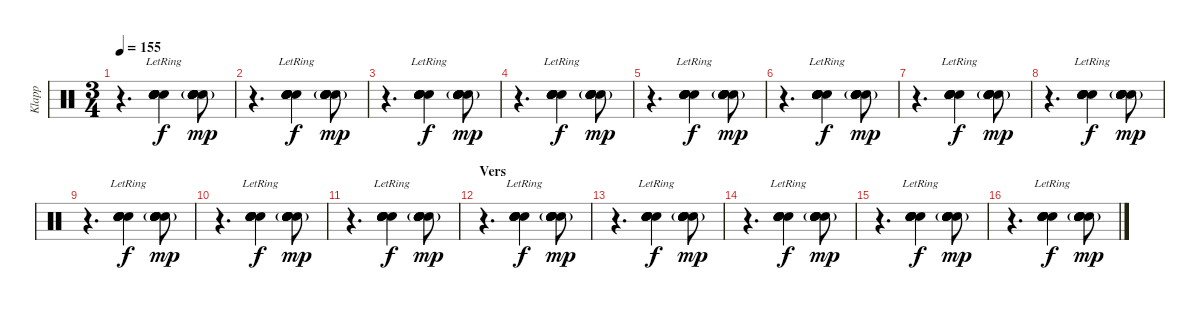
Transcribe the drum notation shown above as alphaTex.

\track ("Klapp" "Klapp") {instrument percussion}
\staff {score}
\articulation defaults
\ts (3 4)
\tempo 155
\clef neutral
\ks c
r.4{d dy mp} ("Hand Clap (hit)"{lr} "Hand Clap (hit)"{lr} "Hand Clap (hit)"{lr} "Hand Clap (hit)"{lr} "Hand Clap (hit)"{lr} "Hand Clap (hit)"{lr}).4{dy f} ("Hand Clap (hit)"{g} "Hand Clap (hit)"{g} "Hand Clap (hit)"{g} "Hand Clap (hit)"{g} "Hand Clap (hit)"{g} "Hand Clap (hit)"{g}).8{dy mp} |
r.4{d} ("Hand Clap (hit)"{lr} "Hand Clap (hit)"{lr} "Hand Clap (hit)"{lr} "Hand Clap (hit)"{lr} "Hand Clap (hit)"{lr} "Hand Clap (hit)"{lr}).4{dy f} ("Hand Clap (hit)"{g} "Hand Clap (hit)"{g} "Hand Clap (hit)"{g} "Hand Clap (hit)"{g} "Hand Clap (hit)"{g} "Hand Clap (hit)"{g}).8{dy mp} |
r.4{d} ("Hand Clap (hit)"{lr} "Hand Clap (hit)"{lr} "Hand Clap (hit)"{lr} "Hand Clap (hit)"{lr} "Hand Clap (hit)"{lr} "Hand Clap (hit)"{lr}).4{dy f} ("Hand Clap (hit)"{g} "Hand Clap (hit)"{g} "Hand Clap (hit)"{g} "Hand Clap (hit)"{g} "Hand Clap (hit)"{g} "Hand Clap (hit)"{g}).8{dy mp} |
r.4{d} ("Hand Clap (hit)"{lr} "Hand Clap (hit)"{lr} "Hand Clap (hit)"{lr} "Hand Clap (hit)"{lr} "Hand Clap (hit)"{lr} "Hand Clap (hit)"{lr}).4{dy f} ("Hand Clap (hit)"{g} "Hand Clap (hit)"{g} "Hand Clap (hit)"{g} "Hand Clap (hit)"{g} "Hand Clap (hit)"{g} "Hand Clap (hit)"{g}).8{dy mp} |
r.4{d} ("Hand Clap (hit)"{lr} "Hand Clap (hit)"{lr} "Hand Clap (hit)"{lr} "Hand Clap (hit)"{lr} "Hand Clap (hit)"{lr} "Hand Clap (hit)"{lr}).4{dy f} ("Hand Clap (hit)"{g} "Hand Clap (hit)"{g} "Hand Clap (hit)"{g} "Hand Clap (hit)"{g} "Hand Clap (hit)"{g} "Hand Clap (hit)"{g}).8{dy mp} |
r.4{d} ("Hand Clap (hit)"{lr} "Hand Clap (hit)"{lr} "Hand Clap (hit)"{lr} "Hand Clap (hit)"{lr} "Hand Clap (hit)"{lr} "Hand Clap (hit)"{lr}).4{dy f} ("Hand Clap (hit)"{g} "Hand Clap (hit)"{g} "Hand Clap (hit)"{g} "Hand Clap (hit)"{g} "Hand Clap (hit)"{g} "Hand Clap (hit)"{g}).8{dy mp} |
r.4{d} ("Hand Clap (hit)"{lr} "Hand Clap (hit)"{lr} "Hand Clap (hit)"{lr} "Hand Clap (hit)"{lr} "Hand Clap (hit)"{lr} "Hand Clap (hit)"{lr}).4{dy f} ("Hand Clap (hit)"{g} "Hand Clap (hit)"{g} "Hand Clap (hit)"{g} "Hand Clap (hit)"{g} "Hand Clap (hit)"{g} "Hand Clap (hit)"{g}).8{dy mp} |
r.4{d} ("Hand Clap (hit)"{lr} "Hand Clap (hit)"{lr} "Hand Clap (hit)"{lr} "Hand Clap (hit)"{lr} "Hand Clap (hit)"{lr} "Hand Clap (hit)"{lr}).4{dy f} ("Hand Clap (hit)"{g} "Hand Clap (hit)"{g} "Hand Clap (hit)"{g} "Hand Clap (hit)"{g} "Hand Clap (hit)"{g} "Hand Clap (hit)"{g}).8{dy mp} |
r.4{d} ("Hand Clap (hit)"{lr} "Hand Clap (hit)"{lr} "Hand Clap (hit)"{lr} "Hand Clap (hit)"{lr} "Hand Clap (hit)"{lr} "Hand Clap (hit)"{lr}).4{dy f} ("Hand Clap (hit)"{g} "Hand Clap (hit)"{g} "Hand Clap (hit)"{g} "Hand Clap (hit)"{g} "Hand Clap (hit)"{g} "Hand Clap (hit)"{g}).8{dy mp} |
r.4{d} ("Hand Clap (hit)"{lr} "Hand Clap (hit)"{lr} "Hand Clap (hit)"{lr} "Hand Clap (hit)"{lr} "Hand Clap (hit)"{lr} "Hand Clap (hit)"{lr}).4{dy f} ("Hand Clap (hit)"{g} "Hand Clap (hit)"{g} "Hand Clap (hit)"{g} "Hand Clap (hit)"{g} "Hand Clap (hit)"{g} "Hand Clap (hit)"{g}).8{dy mp} |
r.4{d} ("Hand Clap (hit)"{lr} "Hand Clap (hit)"{lr} "Hand Clap (hit)"{lr} "Hand Clap (hit)"{lr} "Hand Clap (hit)"{lr} "Hand Clap (hit)"{lr}).4{dy f} ("Hand Clap (hit)"{g} "Hand Clap (hit)"{g} "Hand Clap (hit)"{g} "Hand Clap (hit)"{g} "Hand Clap (hit)"{g} "Hand Clap (hit)"{g}).8{dy mp} |
\section ("" "Vers")
r.4{d} ("Hand Clap (hit)"{lr} "Hand Clap (hit)"{lr} "Hand Clap (hit)"{lr} "Hand Clap (hit)"{lr} "Hand Clap (hit)"{lr} "Hand Clap (hit)"{lr}).4{dy f} ("Hand Clap (hit)"{g} "Hand Clap (hit)"{g} "Hand Clap (hit)"{g} "Hand Clap (hit)"{g} "Hand Clap (hit)"{g} "Hand Clap (hit)"{g}).8{dy mp} |
r.4{d} ("Hand Clap (hit)"{lr} "Hand Clap (hit)"{lr} "Hand Clap (hit)"{lr} "Hand Clap (hit)"{lr} "Hand Clap (hit)"{lr} "Hand Clap (hit)"{lr}).4{dy f} ("Hand Clap (hit)"{g} "Hand Clap (hit)"{g} "Hand Clap (hit)"{g} "Hand Clap (hit)"{g} "Hand Clap (hit)"{g} "Hand Clap (hit)"{g}).8{dy mp} |
r.4{d} ("Hand Clap (hit)"{lr} "Hand Clap (hit)"{lr} "Hand Clap (hit)"{lr} "Hand Clap (hit)"{lr} "Hand Clap (hit)"{lr} "Hand Clap (hit)"{lr}).4{dy f} ("Hand Clap (hit)"{g} "Hand Clap (hit)"{g} "Hand Clap (hit)"{g} "Hand Clap (hit)"{g} "Hand Clap (hit)"{g} "Hand Clap (hit)"{g}).8{dy mp} |
r.4{d} ("Hand Clap (hit)"{lr} "Hand Clap (hit)"{lr} "Hand Clap (hit)"{lr} "Hand Clap (hit)"{lr} "Hand Clap (hit)"{lr} "Hand Clap (hit)"{lr}).4{dy f} ("Hand Clap (hit)"{g} "Hand Clap (hit)"{g} "Hand Clap (hit)"{g} "Hand Clap (hit)"{g} "Hand Clap (hit)"{g} "Hand Clap (hit)"{g}).8{dy mp} |
r.4{d} ("Hand Clap (hit)"{lr} "Hand Clap (hit)"{lr} "Hand Clap (hit)"{lr} "Hand Clap (hit)"{lr} "Hand Clap (hit)"{lr} "Hand Clap (hit)"{lr}).4{dy f} ("Hand Clap (hit)"{g} "Hand Clap (hit)"{g} "Hand Clap (hit)"{g} "Hand Clap (hit)"{g} "Hand Clap (hit)"{g} "Hand Clap (hit)"{g}).8{dy mp}
